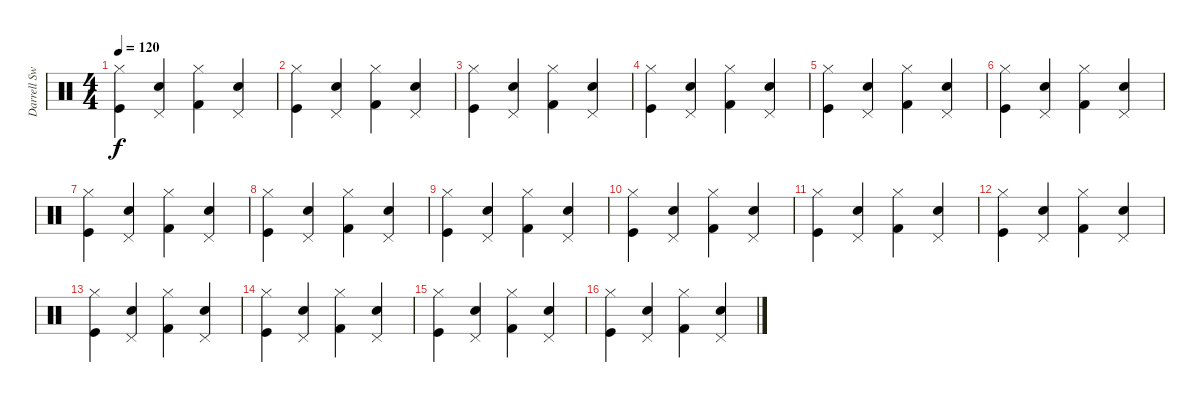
\track ("Darrell Sweet (drums)" "Darrell Sw") {instrument percussion}
\staff {score}
\articulation defaults
\ts (4 4)
\tempo 120
\clef neutral
\ks c
("Hi-Hat (closed)" "Kick (hit)").4{dy f} ("Pedal Hi-Hat (hit)" "Snare (hit) 2").4 ("Hi-Hat (closed)" "Kick (hit) 2").4 ("Pedal Hi-Hat (hit)" "Snare (hit) 2").4 |
("Hi-Hat (closed)" "Kick (hit)").4 ("Pedal Hi-Hat (hit)" "Snare (hit) 2").4 ("Hi-Hat (closed)" "Kick (hit) 2").4 ("Pedal Hi-Hat (hit)" "Snare (hit) 2").4 |
("Hi-Hat (closed)" "Kick (hit)").4 ("Pedal Hi-Hat (hit)" "Snare (hit) 2").4 ("Hi-Hat (closed)" "Kick (hit) 2").4 ("Pedal Hi-Hat (hit)" "Snare (hit) 2").4 |
("Hi-Hat (closed)" "Kick (hit)").4 ("Pedal Hi-Hat (hit)" "Snare (hit) 2").4 ("Hi-Hat (closed)" "Kick (hit) 2").4 ("Pedal Hi-Hat (hit)" "Snare (hit) 2").4 |
("Hi-Hat (closed)" "Kick (hit)").4 ("Pedal Hi-Hat (hit)" "Snare (hit) 2").4 ("Hi-Hat (closed)" "Kick (hit) 2").4 ("Pedal Hi-Hat (hit)" "Snare (hit) 2").4 |
("Hi-Hat (closed)" "Kick (hit)").4 ("Pedal Hi-Hat (hit)" "Snare (hit) 2").4 ("Hi-Hat (closed)" "Kick (hit) 2").4 ("Pedal Hi-Hat (hit)" "Snare (hit) 2").4 |
("Hi-Hat (closed)" "Kick (hit)").4 ("Pedal Hi-Hat (hit)" "Snare (hit) 2").4 ("Hi-Hat (closed)" "Kick (hit) 2").4 ("Pedal Hi-Hat (hit)" "Snare (hit) 2").4 |
("Hi-Hat (closed)" "Kick (hit)").4 ("Pedal Hi-Hat (hit)" "Snare (hit) 2").4 ("Hi-Hat (closed)" "Kick (hit) 2").4 ("Pedal Hi-Hat (hit)" "Snare (hit) 2").4 |
("Hi-Hat (closed)" "Kick (hit)").4 ("Pedal Hi-Hat (hit)" "Snare (hit) 2").4 ("Hi-Hat (closed)" "Kick (hit) 2").4 ("Pedal Hi-Hat (hit)" "Snare (hit) 2").4 |
("Hi-Hat (closed)" "Kick (hit)").4 ("Pedal Hi-Hat (hit)" "Snare (hit) 2").4 ("Hi-Hat (closed)" "Kick (hit) 2").4 ("Pedal Hi-Hat (hit)" "Snare (hit) 2").4 |
("Hi-Hat (closed)" "Kick (hit)").4 ("Pedal Hi-Hat (hit)" "Snare (hit) 2").4 ("Hi-Hat (closed)" "Kick (hit) 2").4 ("Pedal Hi-Hat (hit)" "Snare (hit) 2").4 |
("Hi-Hat (closed)" "Kick (hit)").4 ("Pedal Hi-Hat (hit)" "Snare (hit) 2").4 ("Hi-Hat (closed)" "Kick (hit) 2").4 ("Pedal Hi-Hat (hit)" "Snare (hit) 2").4 |
("Hi-Hat (closed)" "Kick (hit)").4 ("Pedal Hi-Hat (hit)" "Snare (hit) 2").4 ("Hi-Hat (closed)" "Kick (hit) 2").4 ("Pedal Hi-Hat (hit)" "Snare (hit) 2").4 |
("Hi-Hat (closed)" "Kick (hit)").4 ("Pedal Hi-Hat (hit)" "Snare (hit) 2").4 ("Hi-Hat (closed)" "Kick (hit) 2").4 ("Pedal Hi-Hat (hit)" "Snare (hit) 2").4 |
("Hi-Hat (closed)" "Kick (hit)").4 ("Pedal Hi-Hat (hit)" "Snare (hit) 2").4 ("Hi-Hat (closed)" "Kick (hit) 2").4 ("Pedal Hi-Hat (hit)" "Snare (hit) 2").4 |
("Hi-Hat (closed)" "Kick (hit)").4 ("Pedal Hi-Hat (hit)" "Snare (hit) 2").4 ("Hi-Hat (closed)" "Kick (hit) 2").4 ("Pedal Hi-Hat (hit)" "Snare (hit) 2").4
